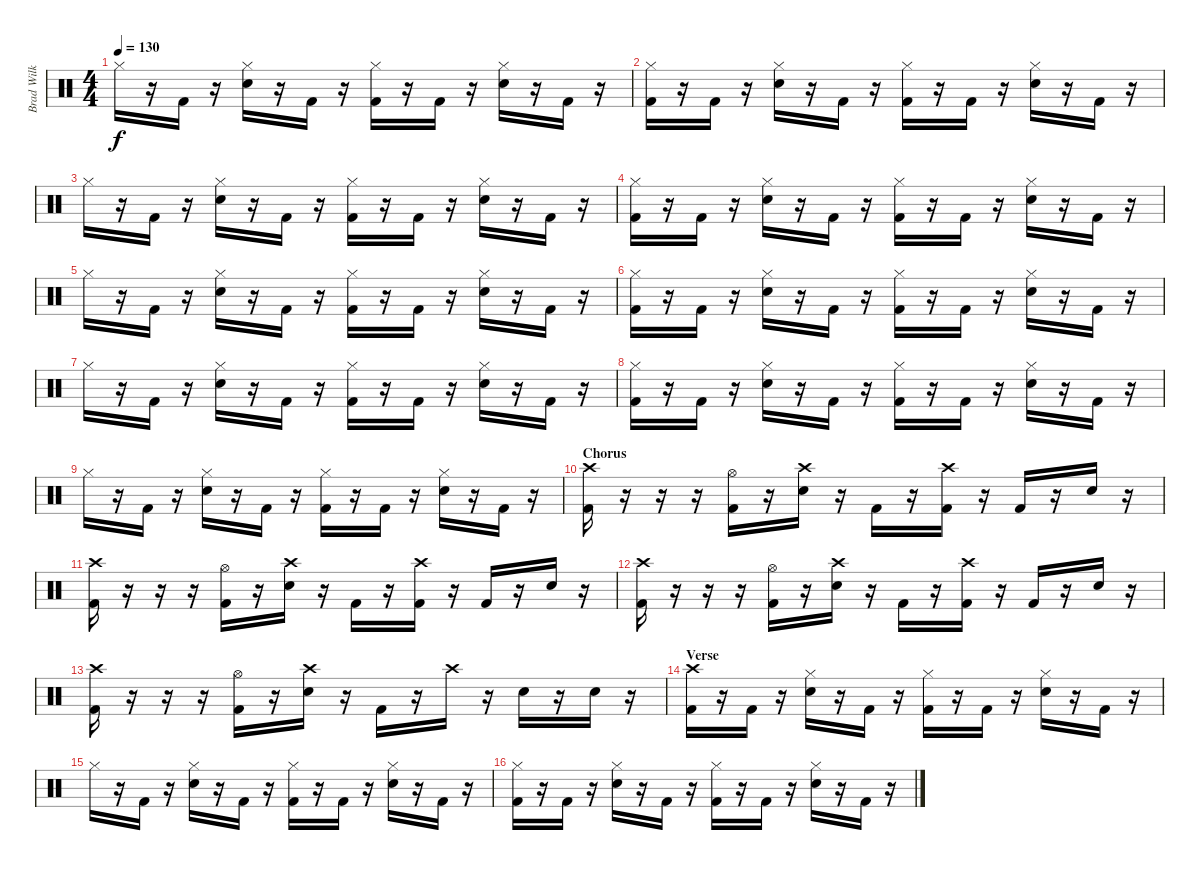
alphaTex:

\track ("Brad Wilk - Drums" "Brad Wilk ") {instrument percussion}
\staff {score}
\articulation defaults
\ts (4 4)
\tempo 130
\clef neutral
\ks c "Hi-Hat (closed)".16{dy f}
r.16 "Kick (hit) 2".16 r.16 ("Hi-Hat (closed)" "Electric Snare (hit)").16 r.16 "Kick (hit) 2".16 r.16 ("Hi-Hat (closed)" "Kick (hit) 2").16 r.16 "Kick (hit) 2".16 r.16 ("Hi-Hat (closed)" "Electric Snare (hit)").16 r.16 "Kick (hit) 2".16 r.16 |
("Hi-Hat (closed)" "Kick (hit) 2").16 r.16 "Kick (hit) 2".16 r.16 ("Hi-Hat (closed)" "Electric Snare (hit)").16 r.16 "Kick (hit) 2".16 r.16 ("Hi-Hat (closed)" "Kick (hit) 2").16 r.16 "Kick (hit) 2".16 r.16 ("Hi-Hat (closed)" "Electric Snare (hit)").16 r.16 "Kick (hit) 2".16 r.16 |
"Hi-Hat (closed)".16 r.16 "Kick (hit) 2".16 r.16 ("Hi-Hat (closed)" "Electric Snare (hit)").16 r.16 "Kick (hit) 2".16 r.16 ("Hi-Hat (closed)" "Kick (hit) 2").16 r.16 "Kick (hit) 2".16 r.16 ("Hi-Hat (closed)" "Electric Snare (hit)").16 r.16 "Kick (hit) 2".16 r.16 |
("Hi-Hat (closed)" "Kick (hit) 2").16 r.16 "Kick (hit) 2".16 r.16 ("Hi-Hat (closed)" "Electric Snare (hit)").16 r.16 "Kick (hit) 2".16 r.16 ("Hi-Hat (closed)" "Kick (hit) 2").16 r.16 "Kick (hit) 2".16 r.16 ("Hi-Hat (closed)" "Electric Snare (hit)").16 r.16 "Kick (hit) 2".16 r.16 |
"Hi-Hat (closed)".16 r.16 "Kick (hit) 2".16 r.16 ("Hi-Hat (closed)" "Electric Snare (hit)").16 r.16 "Kick (hit) 2".16 r.16 ("Hi-Hat (closed)" "Kick (hit) 2").16 r.16 "Kick (hit) 2".16 r.16 ("Hi-Hat (closed)" "Electric Snare (hit)").16 r.16 "Kick (hit) 2".16 r.16 |
("Hi-Hat (closed)" "Kick (hit) 2").16 r.16 "Kick (hit) 2".16 r.16 ("Hi-Hat (closed)" "Electric Snare (hit)").16 r.16 "Kick (hit) 2".16 r.16 ("Hi-Hat (closed)" "Kick (hit) 2").16 r.16 "Kick (hit) 2".16 r.16 ("Hi-Hat (closed)" "Electric Snare (hit)").16 r.16 "Kick (hit) 2".16 r.16 |
"Hi-Hat (closed)".16 r.16 "Kick (hit) 2".16 r.16 ("Hi-Hat (closed)" "Electric Snare (hit)").16 r.16 "Kick (hit) 2".16 r.16 ("Hi-Hat (closed)" "Kick (hit) 2").16 r.16 "Kick (hit) 2".16 r.16 ("Hi-Hat (closed)" "Electric Snare (hit)").16 r.16 "Kick (hit) 2".16 r.16 |
("Hi-Hat (closed)" "Kick (hit) 2").16 r.16 "Kick (hit) 2".16 r.16 ("Hi-Hat (closed)" "Electric Snare (hit)").16 r.16 "Kick (hit) 2".16 r.16 ("Hi-Hat (closed)" "Kick (hit) 2").16 r.16 "Kick (hit) 2".16 r.16 ("Hi-Hat (closed)" "Electric Snare (hit)").16 r.16 "Kick (hit) 2".16 r.16 |
"Hi-Hat (closed)".16 r.16 "Kick (hit) 2".16 r.16 ("Hi-Hat (closed)" "Electric Snare (hit)").16 r.16 "Kick (hit) 2".16 r.16 ("Hi-Hat (closed)" "Kick (hit) 2").16 r.16 "Kick (hit) 2".16 r.16 ("Hi-Hat (closed)" "Electric Snare (hit)").16 r.16 "Kick (hit) 2".16 r.16 |
\section ("" "Chorus")
("Crash high (hit)" "Kick (hit) 2").16 r.16 r.16 r.16 ("Hi-Hat (open)" "Kick (hit) 2").16 r.16 ("Crash high (hit)" "Electric Snare (hit)").16 r.16 "Kick (hit) 2".16 r.16 ("Crash high (hit)" "Kick (hit) 2").16 r.16 "Kick (hit) 2".16 r.16 "Electric Snare (hit)".16 r.16 |
("Crash high (hit)" "Kick (hit) 2").16 r.16 r.16 r.16 ("Hi-Hat (open)" "Kick (hit) 2").16 r.16 ("Crash high (hit)" "Electric Snare (hit)").16 r.16 "Kick (hit) 2".16 r.16 ("Crash high (hit)" "Kick (hit) 2").16 r.16 "Kick (hit) 2".16 r.16 "Electric Snare (hit)".16 r.16 |
("Crash high (hit)" "Kick (hit) 2").16 r.16 r.16 r.16 ("Hi-Hat (open)" "Kick (hit) 2").16 r.16 ("Crash high (hit)" "Electric Snare (hit)").16 r.16 "Kick (hit) 2".16 r.16 ("Crash high (hit)" "Kick (hit) 2").16 r.16 "Kick (hit) 2".16 r.16 "Electric Snare (hit)".16 r.16 |
("Crash high (hit)" "Kick (hit) 2").16 r.16 r.16 r.16 ("Hi-Hat (open)" "Kick (hit) 2").16 r.16 ("Crash high (hit)" "Electric Snare (hit)").16 r.16 "Kick (hit) 2".16 r.16 "Crash high (hit)".16 r.16 "Electric Snare (hit)".16 r.16 "Electric Snare (hit)".16 r.16 |
\section ("" "Verse")
("Crash high (hit)" "Kick (hit) 2").16 r.16 "Kick (hit) 2".16 r.16 ("Hi-Hat (closed)" "Electric Snare (hit)").16 r.16 "Kick (hit) 2".16 r.16 ("Hi-Hat (closed)" "Kick (hit) 2").16 r.16 "Kick (hit) 2".16 r.16 ("Hi-Hat (closed)" "Electric Snare (hit)").16 r.16 "Kick (hit) 2".16 r.16 |
"Hi-Hat (closed)".16 r.16 "Kick (hit) 2".16 r.16 ("Hi-Hat (closed)" "Electric Snare (hit)").16 r.16 "Kick (hit) 2".16 r.16 ("Hi-Hat (closed)" "Kick (hit) 2").16 r.16 "Kick (hit) 2".16 r.16 ("Hi-Hat (closed)" "Electric Snare (hit)").16 r.16 "Kick (hit) 2".16 r.16 |
("Hi-Hat (closed)" "Kick (hit) 2").16 r.16 "Kick (hit) 2".16 r.16 ("Hi-Hat (closed)" "Electric Snare (hit)").16 r.16 "Kick (hit) 2".16 r.16 ("Hi-Hat (closed)" "Kick (hit) 2").16 r.16 "Kick (hit) 2".16 r.16 ("Hi-Hat (closed)" "Electric Snare (hit)").16 r.16 "Kick (hit) 2".16 r.16
